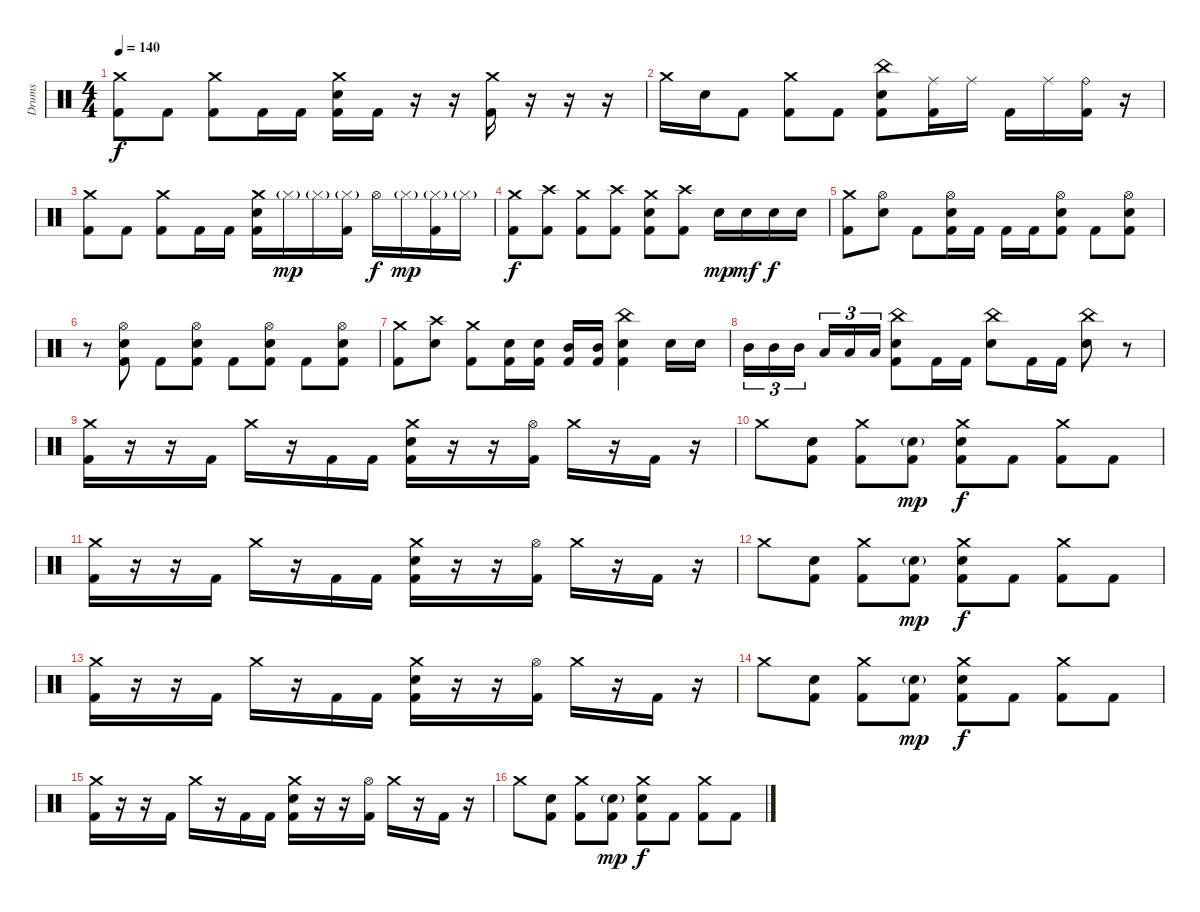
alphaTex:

\track ("Drums" "Drums") {instrument percussion}
\staff {score}
\articulation defaults
\ts (4 4)
\tempo 140
\clef neutral
\ks c
("Crash medium (hit)" "Kick (hit) 2").8{dy f} "Kick (hit) 2".8 ("Crash medium (hit)" "Kick (hit) 2").8 "Kick (hit) 2".16 "Kick (hit) 2".16 ("Crash medium (hit)" "Electric Snare (hit)" "Kick (hit) 2").16 "Kick (hit) 2".16 r.16 r.16 ("Crash medium (hit)" "Kick (hit) 2").16 r.16 r.16 r.16 |
"Crash medium (hit)".16 "Electric Snare (hit)".16 "Kick (hit) 2".8 ("Crash medium (hit)" "Kick (hit) 2").8 "Kick (hit) 2".8 ("China (hit)" "Electric Snare (hit)" "Kick (hit) 2").8 ("Ride (middle)" "Kick (hit) 2").16 "Ride (middle)".16 "Kick (hit) 2".16 "Ride (middle)".16 ("Ride (bell)" "Kick (hit) 2").16 r.16 |
("Crash medium (hit)" "Kick (hit) 2").8 "Kick (hit) 2".8 ("Crash medium (hit)" "Kick (hit) 2").8 "Kick (hit) 2".16 "Kick (hit) 2".16 ("Crash medium (hit)" "Electric Snare (hit)" "Kick (hit) 2").16 "Hi-Hat (closed)"{g}.16{dy mp} "Hi-Hat (closed)"{g}.16 ("Hi-Hat (closed)"{g} "Kick (hit) 2").16 "Hi-Hat (open)".16{dy f} "Hi-Hat (closed)"{g}.16{dy mp} ("Hi-Hat (closed)"{g} "Kick (hit) 2").16 "Hi-Hat (closed)"{g}.16 |
("Crash medium (hit)" "Kick (hit) 2").8{dy f} ("Crash high (hit)" "Kick (hit) 2").8 ("Crash medium (hit)" "Kick (hit) 2").8 ("Crash high (hit)" "Kick (hit) 2").8 ("Crash medium (hit)" "Electric Snare (hit)" "Kick (hit) 2").8 ("Crash high (hit)" "Kick (hit) 2").8 "Electric Snare (hit)".16{dy mp} "Electric Snare (hit)".16{dy mf} "Electric Snare (hit)".16{dy f} "Electric Snare (hit)".16 |
("Crash medium (hit)" "Kick (hit) 2").8 ("Hi-Hat (open)" "Electric Snare (hit)").8 "Kick (hit) 2".8 ("Hi-Hat (open)" "Electric Snare (hit)" "Kick (hit) 2").16 "Kick (hit) 2".16 "Kick (hit) 2".16 "Kick (hit) 2".16 ("Hi-Hat (open)" "Electric Snare (hit)" "Kick (hit) 2").8 "Kick (hit) 2".8 ("Hi-Hat (open)" "Electric Snare (hit)" "Kick (hit) 2").8 |
r.8 ("Hi-Hat (open)" "Electric Snare (hit)" "Kick (hit) 2").8 "Kick (hit) 2".8 ("Hi-Hat (open)" "Electric Snare (hit)" "Kick (hit) 2").8 "Kick (hit) 2".8 ("Hi-Hat (open)" "Electric Snare (hit)" "Kick (hit) 2").8 "Kick (hit) 2".8 ("Hi-Hat (open)" "Electric Snare (hit)" "Kick (hit) 2").8 |
("Crash medium (hit)" "Kick (hit) 2").8 ("Crash high (hit)" "Electric Snare (hit)").8 ("Crash medium (hit)" "Kick (hit) 2").8 ("Electric Snare (hit)" "Kick (hit) 2").16 ("Electric Snare (hit)" "Kick (hit) 2").16 ("Mid Tom (hit)" "Kick (hit) 2").16 ("Mid Tom (hit)" "Kick (hit) 2").16 ("China (hit)" "Electric Snare (hit)" "Kick (hit) 2").4 "Electric Snare (hit)".16 "Electric Snare (hit)".16 |
"Mid Tom (hit)".16{tu (3 2)} "Mid Tom (hit)".16{tu (3 2)} "Mid Tom (hit)".16{tu (3 2) beam splitsecondary} "Low Tom (hit)".16{tu (3 2)} "Low Tom (hit)".16{tu (3 2)} "Low Tom (hit)".16{tu (3 2)} ("China (hit)" "Electric Snare (hit)" "Kick (hit) 2").8 "Kick (hit) 2".16 "Kick (hit) 2".16 ("China (hit)" "Electric Snare (hit)").8 "Kick (hit) 2".16 "Kick (hit) 2".16 ("China (hit)" "Electric Snare (hit)").8 r.8 |
("Crash medium (hit)" "Kick (hit) 2").16 r.16 r.16 "Kick (hit) 2".16 "Crash medium (hit)".16 r.16 "Kick (hit) 2".16 "Kick (hit) 2".16 ("Crash medium (hit)" "Electric Snare (hit)" "Kick (hit) 2").16 r.16 r.16 ("Hi-Hat (open)" "Kick (hit) 2").16 "Crash medium (hit)".16 r.16 "Kick (hit) 2".16 r.16 |
"Crash medium (hit)".8 ("Electric Snare (hit)" "Kick (hit) 2").8 ("Crash medium (hit)" "Kick (hit) 2").8 ("Electric Snare (hit)"{g} "Kick (hit) 2").8{dy mp} ("Crash medium (hit)" "Electric Snare (hit)" "Kick (hit) 2").8{dy f} "Kick (hit) 2".8 ("Crash medium (hit)" "Kick (hit) 2").8 "Kick (hit) 2".8 |
("Crash medium (hit)" "Kick (hit) 2").16 r.16 r.16 "Kick (hit) 2".16 "Crash medium (hit)".16 r.16 "Kick (hit) 2".16 "Kick (hit) 2".16 ("Crash medium (hit)" "Electric Snare (hit)" "Kick (hit) 2").16 r.16 r.16 ("Hi-Hat (open)" "Kick (hit) 2").16 "Crash medium (hit)".16 r.16 "Kick (hit) 2".16 r.16 |
"Crash medium (hit)".8 ("Electric Snare (hit)" "Kick (hit) 2").8 ("Crash medium (hit)" "Kick (hit) 2").8 ("Electric Snare (hit)"{g} "Kick (hit) 2").8{dy mp} ("Crash medium (hit)" "Electric Snare (hit)" "Kick (hit) 2").8{dy f} "Kick (hit) 2".8 ("Crash medium (hit)" "Kick (hit) 2").8 "Kick (hit) 2".8 |
("Crash medium (hit)" "Kick (hit) 2").16 r.16 r.16 "Kick (hit) 2".16 "Crash medium (hit)".16 r.16 "Kick (hit) 2".16 "Kick (hit) 2".16 ("Crash medium (hit)" "Electric Snare (hit)" "Kick (hit) 2").16 r.16 r.16 ("Hi-Hat (open)" "Kick (hit) 2").16 "Crash medium (hit)".16 r.16 "Kick (hit) 2".16 r.16 |
"Crash medium (hit)".8 ("Electric Snare (hit)" "Kick (hit) 2").8 ("Crash medium (hit)" "Kick (hit) 2").8 ("Electric Snare (hit)"{g} "Kick (hit) 2").8{dy mp} ("Crash medium (hit)" "Electric Snare (hit)" "Kick (hit) 2").8{dy f} "Kick (hit) 2".8 ("Crash medium (hit)" "Kick (hit) 2").8 "Kick (hit) 2".8 |
("Crash medium (hit)" "Kick (hit) 2").16 r.16 r.16 "Kick (hit) 2".16 "Crash medium (hit)".16 r.16 "Kick (hit) 2".16 "Kick (hit) 2".16 ("Crash medium (hit)" "Electric Snare (hit)" "Kick (hit) 2").16 r.16 r.16 ("Hi-Hat (open)" "Kick (hit) 2").16 "Crash medium (hit)".16 r.16 "Kick (hit) 2".16 r.16 |
"Crash medium (hit)".8 ("Electric Snare (hit)" "Kick (hit) 2").8 ("Crash medium (hit)" "Kick (hit) 2").8 ("Electric Snare (hit)"{g} "Kick (hit) 2").8{dy mp} ("Crash medium (hit)" "Electric Snare (hit)" "Kick (hit) 2").8{dy f} "Kick (hit) 2".8 ("Crash medium (hit)" "Kick (hit) 2").8 "Kick (hit) 2".8
